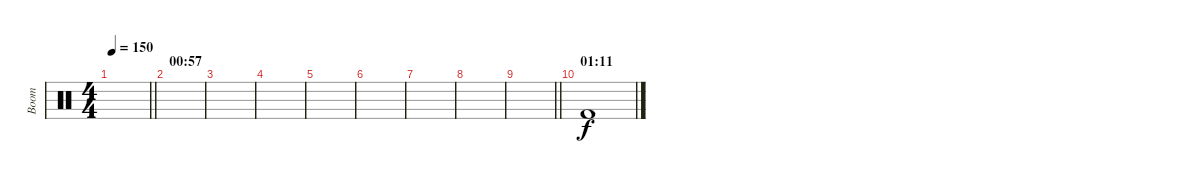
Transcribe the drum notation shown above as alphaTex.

\track ("Boom" "Boom") {instrument percussion}
\staff {score}
\articulation defaults
\ts (4 4)
\tempo 150
\clef neutral
\barLineRight lightlight
\ks c
|
\section ("" "00:57")
|
|
|
|
|
|
|
\barLineRight lightlight
|
\section ("" "01:11")
"Kick (hit) 2".1
